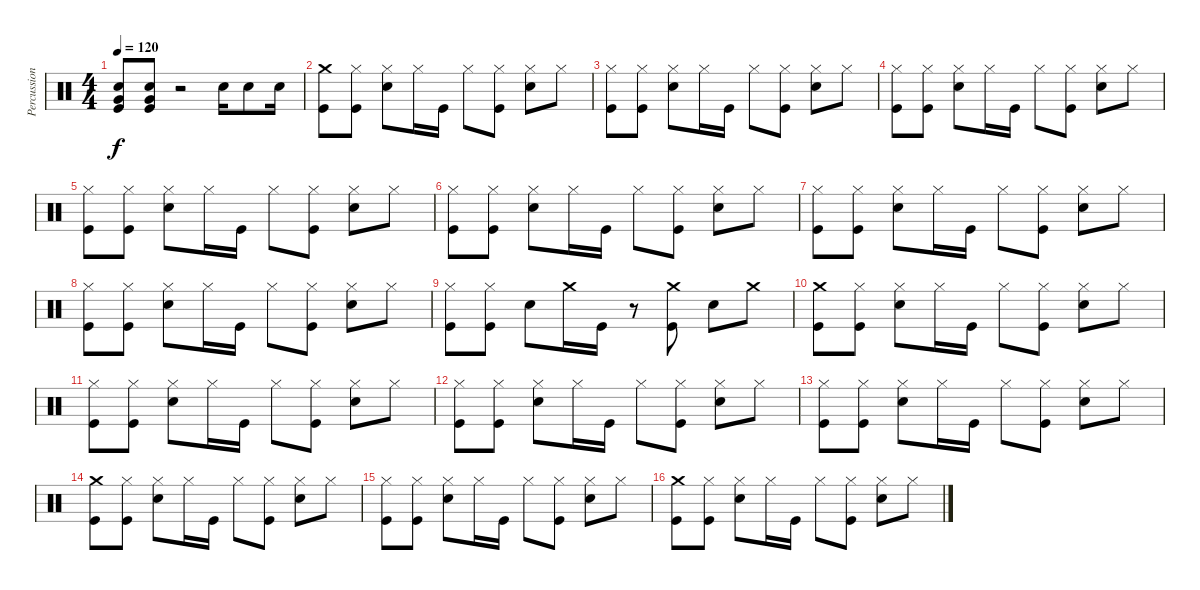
\track ("Percussion" "Percussion") {instrument percussion}
\staff {score}
\articulation defaults
\ts (4 4)
\tempo 120
\clef neutral
\ks c
("Electric Snare (hit)" "Very Low Tom (hit)" "Kick (hit)").8{dy f} ("Electric Snare (hit)" "Very Low Tom (hit)" "Kick (hit)").8 r.2 "Electric Snare (hit)".16 "Electric Snare (hit)".8 "Electric Snare (hit)".16 |
("Crash medium (hit)" "Kick (hit)").8 ("Hi-Hat (closed)" "Kick (hit)").8 ("Hi-Hat (closed)" "Electric Snare (hit)").8 "Hi-Hat (closed)".16 "Kick (hit)".16 "Hi-Hat (closed)".8 ("Hi-Hat (closed)" "Kick (hit)").8 ("Hi-Hat (closed)" "Electric Snare (hit)").8 "Hi-Hat (closed)".8 |
("Hi-Hat (closed)" "Kick (hit)").8 ("Hi-Hat (closed)" "Kick (hit)").8 ("Hi-Hat (closed)" "Electric Snare (hit)").8 "Hi-Hat (closed)".16 "Kick (hit)".16 "Hi-Hat (closed)".8 ("Hi-Hat (closed)" "Kick (hit)").8 ("Hi-Hat (closed)" "Electric Snare (hit)").8 "Hi-Hat (closed)".8 |
("Hi-Hat (closed)" "Kick (hit)").8 ("Hi-Hat (closed)" "Kick (hit)").8 ("Hi-Hat (closed)" "Electric Snare (hit)").8 "Hi-Hat (closed)".16 "Kick (hit)".16 "Hi-Hat (closed)".8 ("Hi-Hat (closed)" "Kick (hit)").8 ("Hi-Hat (closed)" "Electric Snare (hit)").8 "Hi-Hat (closed)".8 |
("Hi-Hat (closed)" "Kick (hit)").8 ("Hi-Hat (closed)" "Kick (hit)").8 ("Hi-Hat (closed)" "Electric Snare (hit)").8 "Hi-Hat (closed)".16 "Kick (hit)".16 "Hi-Hat (closed)".8 ("Hi-Hat (closed)" "Kick (hit)").8 ("Hi-Hat (closed)" "Electric Snare (hit)").8 "Hi-Hat (closed)".8 |
("Hi-Hat (closed)" "Kick (hit)").8 ("Hi-Hat (closed)" "Kick (hit)").8 ("Hi-Hat (closed)" "Electric Snare (hit)").8 "Hi-Hat (closed)".16 "Kick (hit)".16 "Hi-Hat (closed)".8 ("Hi-Hat (closed)" "Kick (hit)").8 ("Hi-Hat (closed)" "Electric Snare (hit)").8 "Hi-Hat (closed)".8 |
("Hi-Hat (closed)" "Kick (hit)").8 ("Hi-Hat (closed)" "Kick (hit)").8 ("Hi-Hat (closed)" "Electric Snare (hit)").8 "Hi-Hat (closed)".16 "Kick (hit)".16 "Hi-Hat (closed)".8 ("Hi-Hat (closed)" "Kick (hit)").8 ("Hi-Hat (closed)" "Electric Snare (hit)").8 "Hi-Hat (closed)".8 |
("Hi-Hat (closed)" "Kick (hit)").8 ("Hi-Hat (closed)" "Kick (hit)").8 ("Hi-Hat (closed)" "Electric Snare (hit)").8 "Hi-Hat (closed)".16 "Kick (hit)".16 "Hi-Hat (closed)".8 ("Hi-Hat (closed)" "Kick (hit)").8 ("Hi-Hat (closed)" "Electric Snare (hit)").8 "Hi-Hat (closed)".8 |
("Hi-Hat (closed)" "Kick (hit)").8 ("Hi-Hat (closed)" "Kick (hit)").8 "Electric Snare (hit)".8 "Crash medium (hit)".16 "Kick (hit)".16 r.8 ("Crash medium (hit)" "Kick (hit)").8 "Electric Snare (hit)".8 "Crash medium (hit)".8 |
("Crash medium (hit)" "Kick (hit)").8 ("Hi-Hat (closed)" "Kick (hit)").8 ("Hi-Hat (closed)" "Electric Snare (hit)").8 "Hi-Hat (closed)".16 "Kick (hit)".16 "Hi-Hat (closed)".8 ("Hi-Hat (closed)" "Kick (hit)").8 ("Hi-Hat (closed)" "Electric Snare (hit)").8 "Hi-Hat (closed)".8 |
("Hi-Hat (closed)" "Kick (hit)").8 ("Hi-Hat (closed)" "Kick (hit)").8 ("Hi-Hat (closed)" "Electric Snare (hit)").8 "Hi-Hat (closed)".16 "Kick (hit)".16 "Hi-Hat (closed)".8 ("Hi-Hat (closed)" "Kick (hit)").8 ("Hi-Hat (closed)" "Electric Snare (hit)").8 "Hi-Hat (closed)".8 |
("Hi-Hat (closed)" "Kick (hit)").8 ("Hi-Hat (closed)" "Kick (hit)").8 ("Hi-Hat (closed)" "Electric Snare (hit)").8 "Hi-Hat (closed)".16 "Kick (hit)".16 "Hi-Hat (closed)".8 ("Hi-Hat (closed)" "Kick (hit)").8 ("Hi-Hat (closed)" "Electric Snare (hit)").8 "Hi-Hat (closed)".8 |
("Hi-Hat (closed)" "Kick (hit)").8 ("Hi-Hat (closed)" "Kick (hit)").8 ("Hi-Hat (closed)" "Electric Snare (hit)").8 "Hi-Hat (closed)".16 "Kick (hit)".16 "Hi-Hat (closed)".8 ("Hi-Hat (closed)" "Kick (hit)").8 ("Hi-Hat (closed)" "Electric Snare (hit)").8 "Hi-Hat (closed)".8 |
("Crash medium (hit)" "Kick (hit)").8 ("Hi-Hat (closed)" "Kick (hit)").8 ("Hi-Hat (closed)" "Electric Snare (hit)").8 "Hi-Hat (closed)".16 "Kick (hit)".16 "Hi-Hat (closed)".8 ("Hi-Hat (closed)" "Kick (hit)").8 ("Hi-Hat (closed)" "Electric Snare (hit)").8 "Hi-Hat (closed)".8 |
("Hi-Hat (closed)" "Kick (hit)").8 ("Hi-Hat (closed)" "Kick (hit)").8 ("Hi-Hat (closed)" "Electric Snare (hit)").8 "Hi-Hat (closed)".16 "Kick (hit)".16 "Hi-Hat (closed)".8 ("Hi-Hat (closed)" "Kick (hit)").8 ("Hi-Hat (closed)" "Electric Snare (hit)").8 "Hi-Hat (closed)".8 |
("Crash medium (hit)" "Kick (hit)").8 ("Hi-Hat (closed)" "Kick (hit)").8 ("Hi-Hat (closed)" "Electric Snare (hit)").8 "Hi-Hat (closed)".16 "Kick (hit)".16 "Hi-Hat (closed)".8 ("Hi-Hat (closed)" "Kick (hit)").8 ("Hi-Hat (closed)" "Electric Snare (hit)").8 "Hi-Hat (closed)".8
